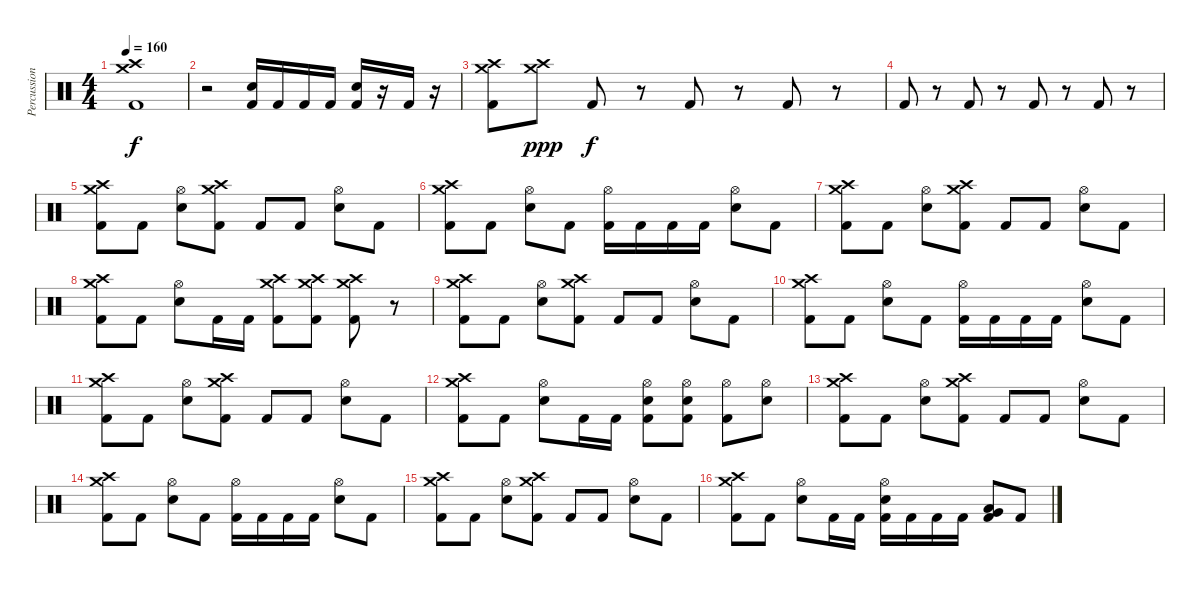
\track ("Percussion" "Percussion") {instrument percussion}
\staff {score}
\articulation defaults
\ts (4 4)
\tempo 160
\clef neutral
\ks c
("Crash medium (hit)" "Crash high (hit)" "Kick (hit) 2").1{dy f} |
r.2 ("Electric Snare (hit)" "Kick (hit) 2").16 "Kick (hit) 2".16 "Kick (hit) 2".16 "Kick (hit) 2".16 ("Electric Snare (hit)" "Kick (hit) 2").16 r.16 "Kick (hit) 2".16 r.16 |
("Crash medium (hit)" "Crash high (hit)" "Kick (hit) 2").8 ("Crash medium (hit)" "Crash high (hit)").8{dy ppp} "Kick (hit) 2".8{dy f} r.8 "Kick (hit) 2".8 r.8 "Kick (hit) 2".8 r.8 |
"Kick (hit) 2".8 r.8 "Kick (hit) 2".8 r.8 "Kick (hit) 2".8 r.8 "Kick (hit) 2".8 r.8 |
("Crash medium (hit)" "Crash high (hit)" "Kick (hit) 2").8 "Kick (hit) 2".8 ("Hi-Hat (open)" "Electric Snare (hit)").8 ("Crash medium (hit)" "Crash high (hit)" "Kick (hit) 2").8 "Kick (hit) 2".8 "Kick (hit) 2".8 ("Hi-Hat (open)" "Electric Snare (hit)").8 "Kick (hit) 2".8 |
("Crash medium (hit)" "Crash high (hit)" "Kick (hit) 2").8 "Kick (hit) 2".8 ("Hi-Hat (open)" "Electric Snare (hit)").8 "Kick (hit) 2".8 ("Hi-Hat (open)" "Kick (hit) 2").16 "Kick (hit) 2".16 "Kick (hit) 2".16 "Kick (hit) 2".16 ("Hi-Hat (open)" "Electric Snare (hit)").8 "Kick (hit) 2".8 |
("Crash medium (hit)" "Crash high (hit)" "Kick (hit) 2").8 "Kick (hit) 2".8 ("Hi-Hat (open)" "Electric Snare (hit)").8 ("Crash medium (hit)" "Crash high (hit)" "Kick (hit) 2").8 "Kick (hit) 2".8 "Kick (hit) 2".8 ("Hi-Hat (open)" "Electric Snare (hit)").8 "Kick (hit) 2".8 |
("Crash medium (hit)" "Crash high (hit)" "Kick (hit) 2").8 "Kick (hit) 2".8 ("Hi-Hat (open)" "Electric Snare (hit)").8 "Kick (hit) 2".16 "Kick (hit) 2".16 ("Crash medium (hit)" "Crash high (hit)" "Kick (hit) 2").8 ("Crash medium (hit)" "Crash high (hit)" "Kick (hit) 2").8 ("Crash medium (hit)" "Crash high (hit)" "Kick (hit) 2").8 r.8 |
("Crash medium (hit)" "Crash high (hit)" "Kick (hit) 2").8 "Kick (hit) 2".8 ("Hi-Hat (open)" "Electric Snare (hit)").8 ("Crash medium (hit)" "Crash high (hit)" "Kick (hit) 2").8 "Kick (hit) 2".8 "Kick (hit) 2".8 ("Hi-Hat (open)" "Electric Snare (hit)").8 "Kick (hit) 2".8 |
("Crash medium (hit)" "Crash high (hit)" "Kick (hit) 2").8 "Kick (hit) 2".8 ("Hi-Hat (open)" "Electric Snare (hit)").8 "Kick (hit) 2".8 ("Hi-Hat (open)" "Kick (hit) 2").16 "Kick (hit) 2".16 "Kick (hit) 2".16 "Kick (hit) 2".16 ("Hi-Hat (open)" "Electric Snare (hit)").8 "Kick (hit) 2".8 |
("Crash medium (hit)" "Crash high (hit)" "Kick (hit) 2").8 "Kick (hit) 2".8 ("Hi-Hat (open)" "Electric Snare (hit)").8 ("Crash medium (hit)" "Crash high (hit)" "Kick (hit) 2").8 "Kick (hit) 2".8 "Kick (hit) 2".8 ("Hi-Hat (open)" "Electric Snare (hit)").8 "Kick (hit) 2".8 |
("Crash medium (hit)" "Crash high (hit)" "Kick (hit) 2").8 "Kick (hit) 2".8 ("Hi-Hat (open)" "Electric Snare (hit)").8 "Kick (hit) 2".16 "Kick (hit) 2".16 ("Hi-Hat (open)" "Electric Snare (hit)" "Kick (hit) 2").8 ("Hi-Hat (open)" "Electric Snare (hit)" "Kick (hit) 2").8 ("Hi-Hat (open)" "Kick (hit) 2").8 ("Hi-Hat (open)" "Electric Snare (hit)").8 |
("Crash medium (hit)" "Crash high (hit)" "Kick (hit) 2").8 "Kick (hit) 2".8 ("Hi-Hat (open)" "Electric Snare (hit)").8 ("Crash medium (hit)" "Crash high (hit)" "Kick (hit) 2").8 "Kick (hit) 2".8 "Kick (hit) 2".8 ("Hi-Hat (open)" "Electric Snare (hit)").8 "Kick (hit) 2".8 |
("Crash medium (hit)" "Crash high (hit)" "Kick (hit) 2").8 "Kick (hit) 2".8 ("Hi-Hat (open)" "Electric Snare (hit)").8 "Kick (hit) 2".8 ("Hi-Hat (open)" "Kick (hit) 2").16 "Kick (hit) 2".16 "Kick (hit) 2".16 "Kick (hit) 2".16 ("Hi-Hat (open)" "Electric Snare (hit)").8 "Kick (hit) 2".8 |
("Crash medium (hit)" "Crash high (hit)" "Kick (hit) 2").8 "Kick (hit) 2".8 ("Hi-Hat (open)" "Electric Snare (hit)").8 ("Crash medium (hit)" "Crash high (hit)" "Kick (hit) 2").8 "Kick (hit) 2".8 "Kick (hit) 2".8 ("Hi-Hat (open)" "Electric Snare (hit)").8 "Kick (hit) 2".8 |
("Crash medium (hit)" "Crash high (hit)" "Kick (hit) 2").8 "Kick (hit) 2".8 ("Hi-Hat (open)" "Electric Snare (hit)").8 "Kick (hit) 2".16 "Kick (hit) 2".16 ("Hi-Hat (open)" "Electric Snare (hit)" "Kick (hit) 2").16 "Kick (hit) 2".16 "Kick (hit) 2".16 "Kick (hit) 2".16 ("Low Floor Tom (hit)" "Very Low Tom (hit)" "Kick (hit) 2").8 "Kick (hit) 2".8
